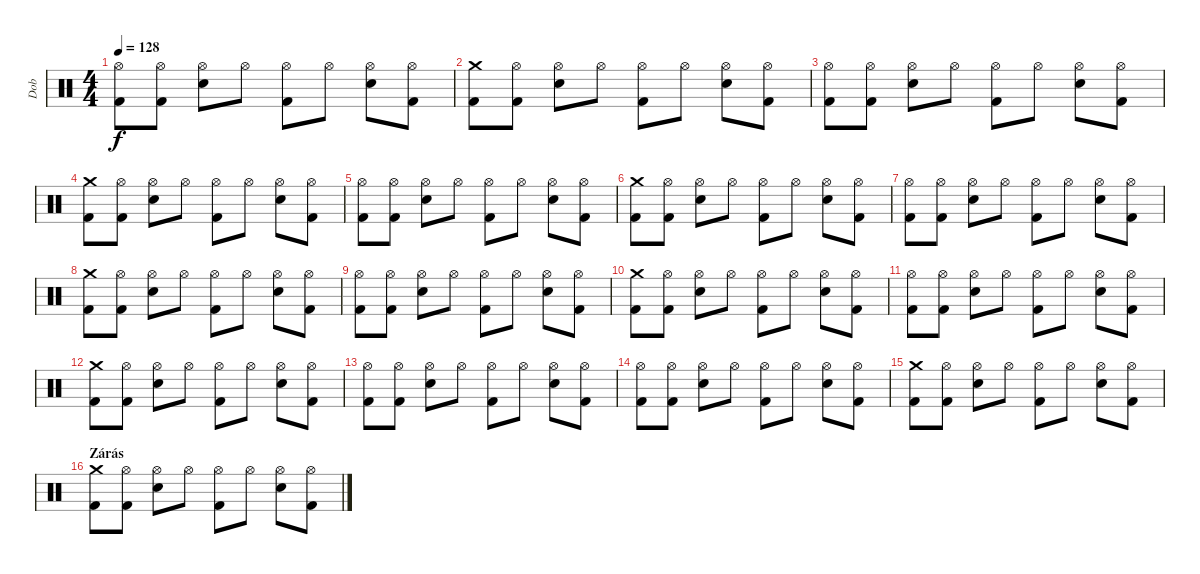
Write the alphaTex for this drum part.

\track ("Dob" "Dob") {instrument percussion}
\staff {score}
\articulation defaults
\ts (4 4)
\tempo 128
\clef neutral
\ks c
("Hi-Hat (open)" "Kick (hit) 2").8{dy f} ("Hi-Hat (open)" "Kick (hit) 2").8 ("Hi-Hat (open)" "Snare (hit) 2").8 "Hi-Hat (open)".8 ("Hi-Hat (open)" "Kick (hit) 2").8 "Hi-Hat (open)".8 ("Hi-Hat (open)" "Snare (hit) 2").8 ("Hi-Hat (open)" "Kick (hit) 2").8 |
("Crash medium (hit)" "Kick (hit) 2").8 ("Hi-Hat (open)" "Kick (hit) 2").8 ("Hi-Hat (open)" "Snare (hit) 2").8 "Hi-Hat (open)".8 ("Hi-Hat (open)" "Kick (hit) 2").8 "Hi-Hat (open)".8 ("Hi-Hat (open)" "Snare (hit) 2").8 ("Hi-Hat (open)" "Kick (hit) 2").8 |
("Hi-Hat (open)" "Kick (hit) 2").8 ("Hi-Hat (open)" "Kick (hit) 2").8 ("Hi-Hat (open)" "Snare (hit) 2").8 "Hi-Hat (open)".8 ("Hi-Hat (open)" "Kick (hit) 2").8 "Hi-Hat (open)".8 ("Hi-Hat (open)" "Snare (hit) 2").8 ("Hi-Hat (open)" "Kick (hit) 2").8 |
("Crash medium (hit)" "Kick (hit) 2").8 ("Hi-Hat (open)" "Kick (hit) 2").8 ("Hi-Hat (open)" "Snare (hit) 2").8 "Hi-Hat (open)".8 ("Hi-Hat (open)" "Kick (hit) 2").8 "Hi-Hat (open)".8 ("Hi-Hat (open)" "Snare (hit) 2").8 ("Hi-Hat (open)" "Kick (hit) 2").8 |
("Hi-Hat (open)" "Kick (hit) 2").8 ("Hi-Hat (open)" "Kick (hit) 2").8 ("Hi-Hat (open)" "Snare (hit) 2").8 "Hi-Hat (open)".8 ("Hi-Hat (open)" "Kick (hit) 2").8 "Hi-Hat (open)".8 ("Hi-Hat (open)" "Snare (hit) 2").8 ("Hi-Hat (open)" "Kick (hit) 2").8 |
("Crash medium (hit)" "Kick (hit) 2").8 ("Hi-Hat (open)" "Kick (hit) 2").8 ("Hi-Hat (open)" "Snare (hit) 2").8 "Hi-Hat (open)".8 ("Hi-Hat (open)" "Kick (hit) 2").8 "Hi-Hat (open)".8 ("Hi-Hat (open)" "Snare (hit) 2").8 ("Hi-Hat (open)" "Kick (hit) 2").8 |
("Hi-Hat (open)" "Kick (hit) 2").8 ("Hi-Hat (open)" "Kick (hit) 2").8 ("Hi-Hat (open)" "Snare (hit) 2").8 "Hi-Hat (open)".8 ("Hi-Hat (open)" "Kick (hit) 2").8 "Hi-Hat (open)".8 ("Hi-Hat (open)" "Snare (hit) 2").8 ("Hi-Hat (open)" "Kick (hit) 2").8 |
("Crash medium (hit)" "Kick (hit) 2").8 ("Hi-Hat (open)" "Kick (hit) 2").8 ("Hi-Hat (open)" "Snare (hit) 2").8 "Hi-Hat (open)".8 ("Hi-Hat (open)" "Kick (hit) 2").8 "Hi-Hat (open)".8 ("Hi-Hat (open)" "Snare (hit) 2").8 ("Hi-Hat (open)" "Kick (hit) 2").8 |
("Hi-Hat (open)" "Kick (hit) 2").8 ("Hi-Hat (open)" "Kick (hit) 2").8 ("Hi-Hat (open)" "Snare (hit) 2").8 "Hi-Hat (open)".8 ("Hi-Hat (open)" "Kick (hit) 2").8 "Hi-Hat (open)".8 ("Hi-Hat (open)" "Snare (hit) 2").8 ("Hi-Hat (open)" "Kick (hit) 2").8 |
("Crash medium (hit)" "Kick (hit) 2").8 ("Hi-Hat (open)" "Kick (hit) 2").8 ("Hi-Hat (open)" "Snare (hit) 2").8 "Hi-Hat (open)".8 ("Hi-Hat (open)" "Kick (hit) 2").8 "Hi-Hat (open)".8 ("Hi-Hat (open)" "Snare (hit) 2").8 ("Hi-Hat (open)" "Kick (hit) 2").8 |
("Hi-Hat (open)" "Kick (hit) 2").8 ("Hi-Hat (open)" "Kick (hit) 2").8 ("Hi-Hat (open)" "Snare (hit) 2").8 "Hi-Hat (open)".8 ("Hi-Hat (open)" "Kick (hit) 2").8 "Hi-Hat (open)".8 ("Hi-Hat (open)" "Snare (hit) 2").8 ("Hi-Hat (open)" "Kick (hit) 2").8 |
("Crash medium (hit)" "Kick (hit) 2").8 ("Hi-Hat (open)" "Kick (hit) 2").8 ("Hi-Hat (open)" "Snare (hit) 2").8 "Hi-Hat (open)".8 ("Hi-Hat (open)" "Kick (hit) 2").8 "Hi-Hat (open)".8 ("Hi-Hat (open)" "Snare (hit) 2").8 ("Hi-Hat (open)" "Kick (hit) 2").8 |
("Hi-Hat (open)" "Kick (hit) 2").8 ("Hi-Hat (open)" "Kick (hit) 2").8 ("Hi-Hat (open)" "Snare (hit) 2").8 "Hi-Hat (open)".8 ("Hi-Hat (open)" "Kick (hit) 2").8 "Hi-Hat (open)".8 ("Hi-Hat (open)" "Snare (hit) 2").8 ("Hi-Hat (open)" "Kick (hit) 2").8 |
("Hi-Hat (open)" "Kick (hit) 2").8 ("Hi-Hat (open)" "Kick (hit) 2").8 ("Hi-Hat (open)" "Snare (hit) 2").8 "Hi-Hat (open)".8 ("Hi-Hat (open)" "Kick (hit) 2").8 "Hi-Hat (open)".8 ("Hi-Hat (open)" "Snare (hit) 2").8 ("Hi-Hat (open)" "Kick (hit) 2").8 |
("Crash medium (hit)" "Kick (hit) 2").8 ("Hi-Hat (open)" "Kick (hit) 2").8 ("Hi-Hat (open)" "Snare (hit) 2").8 "Hi-Hat (open)".8 ("Hi-Hat (open)" "Kick (hit) 2").8 "Hi-Hat (open)".8 ("Hi-Hat (open)" "Snare (hit) 2").8 ("Hi-Hat (open)" "Kick (hit) 2").8 |
\section ("" "Zárás")
("Crash medium (hit)" "Kick (hit) 2").8 ("Hi-Hat (open)" "Kick (hit) 2").8 ("Hi-Hat (open)" "Snare (hit) 2").8 "Hi-Hat (open)".8 ("Hi-Hat (open)" "Kick (hit) 2").8 "Hi-Hat (open)".8 ("Hi-Hat (open)" "Snare (hit) 2").8 ("Hi-Hat (open)" "Kick (hit) 2").8
